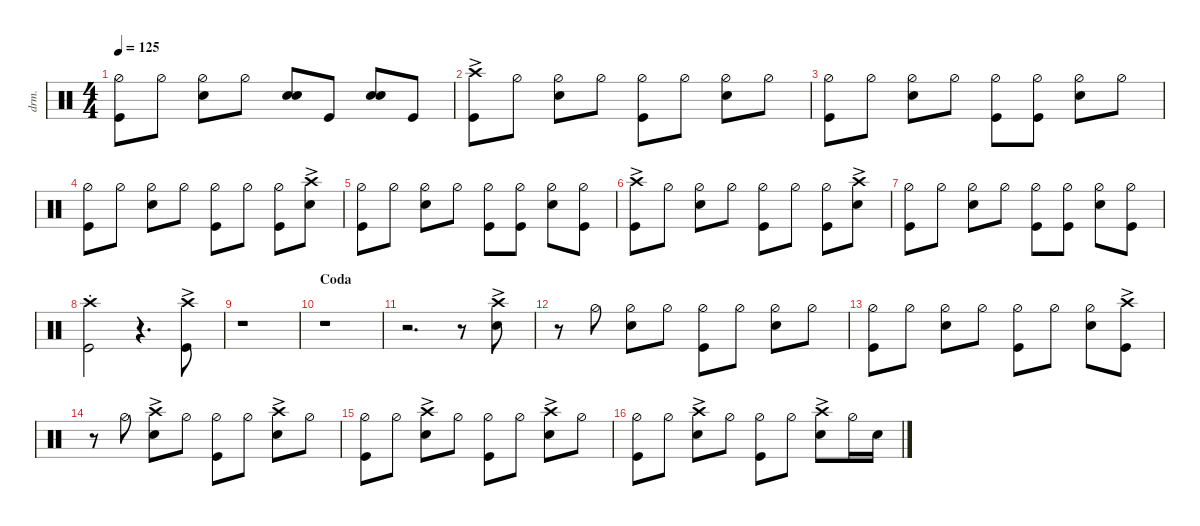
\defaultSystemsLayout 4
\hideDynamics
\bracketExtendMode nobrackets
\track ("Drums" "drm.") {defaultSystemsLayout 4 multiBarRest instrument percussion}
\staff {score}
\articulation defaults
\ts (4 4)
\tempo 125
\clef neutral
\ks c
("Hi-Hat (half)" "Kick (hit)").8{dy f beam Down} "Hi-Hat (half)".8{beam Down} ("Hi-Hat (half)" "Snare (hit) 2").8{beam Down} "Hi-Hat (half)".8{beam Down} ("Snare (hit) 2" "Snare (hit) 2").8{beam Up} "Kick (hit)".8{beam Up} ("Snare (hit) 2" "Snare (hit) 2").8{beam Up} "Kick (hit)".8{beam Up} |
("Kick (hit)" "Crash high (hit)"{ac}).8{beam Down} "Hi-Hat (half)".8{beam Down} ("Hi-Hat (half)" "Snare (hit) 2").8{beam Down} "Hi-Hat (half)".8{beam Down} ("Hi-Hat (half)" "Kick (hit)").8{beam Down} "Hi-Hat (half)".8{beam Down} ("Hi-Hat (half)" "Snare (hit) 2").8{beam Down} "Hi-Hat (half)".8{beam Down} |
("Hi-Hat (half)" "Kick (hit)").8{beam Down} "Hi-Hat (half)".8{beam Down} ("Hi-Hat (half)" "Snare (hit) 2").8{beam Down} "Hi-Hat (half)".8{beam Down} ("Hi-Hat (half)" "Kick (hit)").8{beam Down} ("Hi-Hat (half)" "Kick (hit)").8{beam Down} ("Hi-Hat (half)" "Snare (hit) 2").8{beam Down} "Hi-Hat (half)".8{beam Down} |
("Hi-Hat (half)" "Kick (hit)").8{beam Down} "Hi-Hat (half)".8{beam Down} ("Hi-Hat (half)" "Snare (hit) 2").8{beam Down} "Hi-Hat (half)".8{beam Down} ("Hi-Hat (half)" "Kick (hit)").8{beam Down} "Hi-Hat (half)".8{beam Down} ("Hi-Hat (half)" "Kick (hit)").8{beam Down} ("Snare (hit) 2" "Crash high (hit)"{ac}).8{beam Down} |
("Hi-Hat (half)" "Kick (hit)").8{beam Down} "Hi-Hat (half)".8{beam Down} ("Hi-Hat (half)" "Snare (hit) 2").8{beam Down} "Hi-Hat (half)".8{beam Down} ("Hi-Hat (half)" "Kick (hit)").8{beam Down} ("Hi-Hat (half)" "Kick (hit)").8{beam Down} ("Hi-Hat (half)" "Snare (hit) 2").8{beam Down} ("Hi-Hat (half)" "Kick (hit)").8{beam Down} |
("Kick (hit)" "Crash high (hit)"{ac}).8{beam Down} "Hi-Hat (half)".8{beam Down} ("Hi-Hat (half)" "Snare (hit) 2").8{beam Down} "Hi-Hat (half)".8{beam Down} ("Hi-Hat (half)" "Kick (hit)").8{beam Down} "Hi-Hat (half)".8{beam Down} ("Hi-Hat (half)" "Kick (hit)").8{beam Down} ("Snare (hit) 2" "Crash high (hit)"{ac}).8{beam Down} |
("Hi-Hat (half)" "Kick (hit)").8{beam Down} "Hi-Hat (half)".8{beam Down} ("Hi-Hat (half)" "Snare (hit) 2").8{beam Down} "Hi-Hat (half)".8{beam Down} ("Hi-Hat (half)" "Kick (hit)").8{beam Down} ("Hi-Hat (half)" "Kick (hit)").8{beam Down} ("Hi-Hat (half)" "Snare (hit) 2").8{beam Down} ("Hi-Hat (half)" "Kick (hit)").8{beam Down} |
("Kick (hit)" "Crash high (hit)"{st}).2{beam Down} r.4{d beam Down} ("Kick (hit)" "Crash high (hit)"{ac}).8{beam Down} |
r.1{beam Down} |
\section ("" "Coda")
r.1{beam Down} |
r.2{d beam Down} r.8{beam Down} ("Crash high (hit)"{ac} "Snare (hit) 2"{ac}).8{beam Down} |
r.8{beam Down} "Hi-Hat (half)".8{beam Down} ("Hi-Hat (half)" "Snare (hit) 2").8{beam Down} "Hi-Hat (half)".8{beam Down} ("Hi-Hat (half)" "Kick (hit)").8{beam Down} "Hi-Hat (half)".8{beam Down} ("Hi-Hat (half)" "Snare (hit) 2").8{beam Down} "Hi-Hat (half)".8{beam Down} |
("Hi-Hat (half)" "Kick (hit)").8{beam Down} "Hi-Hat (half)".8{beam Down} ("Hi-Hat (half)" "Snare (hit) 2").8{beam Down} "Hi-Hat (half)".8{beam Down} ("Hi-Hat (half)" "Kick (hit)").8{beam Down} "Hi-Hat (half)".8{beam Down} ("Hi-Hat (half)" "Snare (hit) 2").8{beam Down} ("Kick (hit)" "Crash high (hit)"{ac}).8{beam Down} |
r.8{beam Down} "Hi-Hat (half)".8{beam Down} ("Snare (hit) 2" "Crash high (hit)"{ac}).8{beam Down} "Hi-Hat (half)".8{beam Down} ("Hi-Hat (half)" "Kick (hit)").8{beam Down} "Hi-Hat (half)".8{beam Down} ("Snare (hit) 2" "Crash high (hit)"{ac}).8{beam Down} "Hi-Hat (half)".8{beam Down} |
("Kick (hit)" "Hi-Hat (half)").8{beam Down} "Hi-Hat (half)".8{beam Down} ("Snare (hit) 2" "Crash high (hit)"{ac}).8{beam Down} "Hi-Hat (half)".8{beam Down} ("Hi-Hat (half)" "Kick (hit)").8{beam Down} "Hi-Hat (half)".8{beam Down} ("Snare (hit) 2" "Crash high (hit)"{ac}).8{beam Down} "Hi-Hat (half)".8{beam Down} |
("Kick (hit)" "Hi-Hat (half)").8{beam Down} "Hi-Hat (half)".8{beam Down} ("Snare (hit) 2" "Crash high (hit)"{ac}).8{beam Down} "Hi-Hat (half)".8{beam Down} ("Hi-Hat (half)" "Kick (hit)").8{beam Down} "Hi-Hat (half)".8{beam Down} ("Snare (hit) 2" "Crash high (hit)"{ac}).8{beam Down} "Hi-Hat (half)".16{beam Down} "Snare (hit) 2".16{beam Down}
